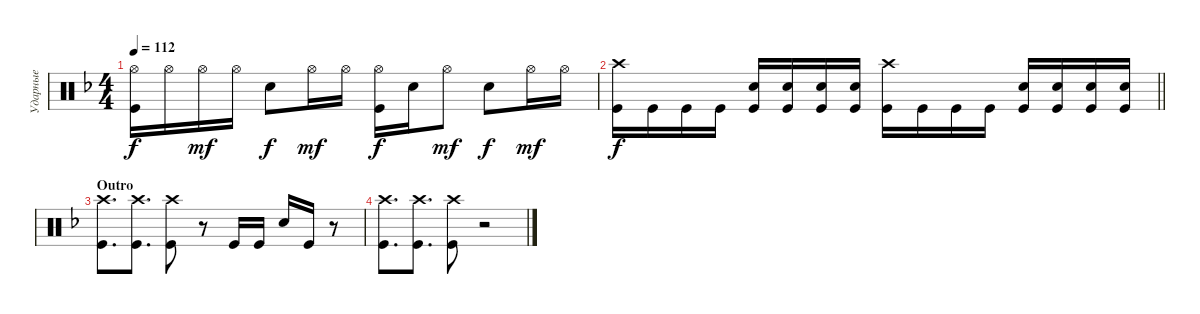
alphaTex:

\track ("Ударные" "Ударные") {instrument percussion}
\staff {score}
\articulation defaults
\ts (4 4)
\tempo 112
\clef neutral
\ks dminor
("Kick (hit)" "Hi-Hat (open)").16{dy f} "Hi-Hat (open)".16 "Hi-Hat (open)".16{dy mf} "Hi-Hat (open)".16 "Snare (hit) 2".8{dy f} "Hi-Hat (open)".16{dy mf} "Hi-Hat (open)".16 ("Hi-Hat (open)" "Kick (hit)").16{dy f} "Snare (hit) 2".16 "Hi-Hat (open)".8{dy mf} "Snare (hit) 2".8{dy f} "Hi-Hat (open)".16{dy mf} "Hi-Hat (open)".16 |
\barLineRight lightlight
("Kick (hit)" "Crash high (hit)").16{dy f} "Kick (hit)".16 "Kick (hit)".16 "Kick (hit)".16 ("Kick (hit)" "Snare (hit) 2").16 ("Kick (hit)" "Snare (hit) 2").16 ("Kick (hit)" "Snare (hit) 2").16 ("Kick (hit)" "Snare (hit) 2").16 ("Kick (hit)" "Crash high (hit)").16 "Kick (hit)".16 "Kick (hit)".16 "Kick (hit)".16 ("Kick (hit)" "Snare (hit) 2").16 ("Kick (hit)" "Snare (hit) 2").16 ("Kick (hit)" "Snare (hit) 2").16 ("Kick (hit)" "Snare (hit) 2").16 |
\section ("" "Outro")
("Kick (hit)" "Crash high (hit)").8{d} ("Kick (hit)" "Crash high (hit)").8{d} ("Kick (hit)" "Crash high (hit)").8 r.8 "Kick (hit)".16 "Kick (hit)".16 "Snare (hit) 2".16 "Kick (hit)".16 r.8 |
("Kick (hit)" "Crash high (hit)").8{d} ("Kick (hit)" "Crash high (hit)").8{d} ("Kick (hit)" "Crash high (hit)").8 r.2
